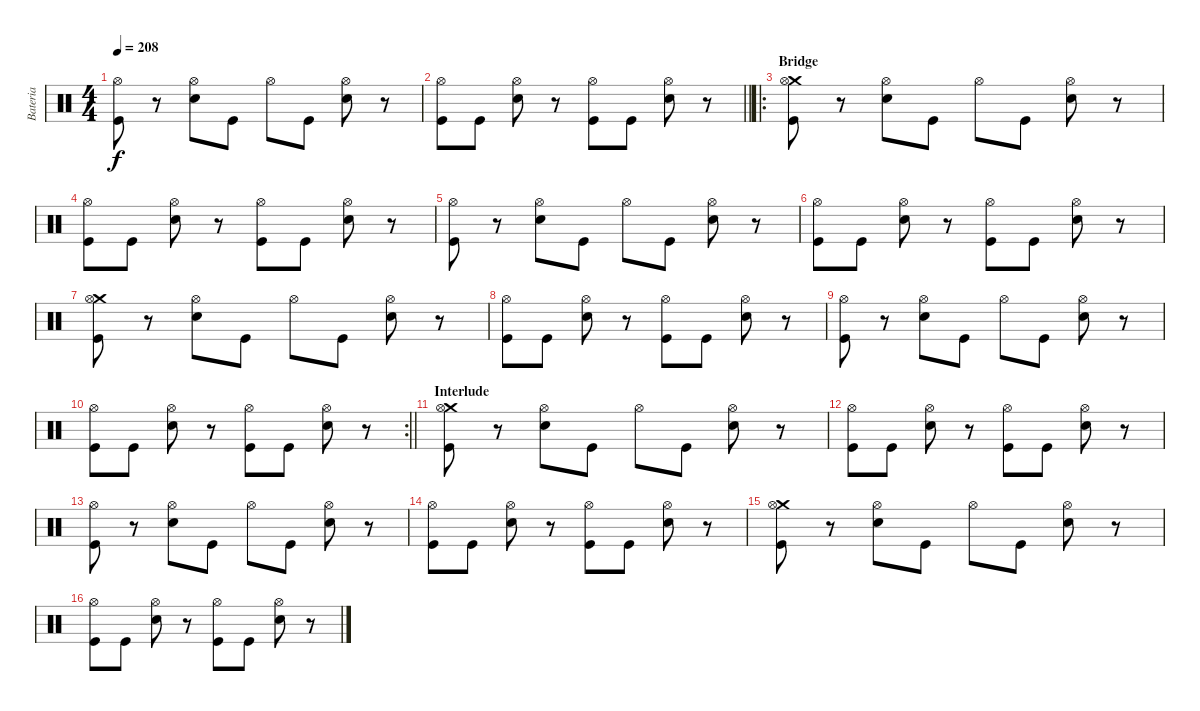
\track ("Bateria" "Bateria") {instrument percussion}
\staff {score}
\articulation defaults
\ts (4 4)
\tempo 208
\clef neutral
\ks c
("Hi-Hat (open)" "Kick (hit)").8{dy f} r.8 ("Hi-Hat (open)" "Electric Snare (hit)").8 "Kick (hit)".8 "Hi-Hat (open)".8 "Kick (hit)".8 ("Hi-Hat (open)" "Electric Snare (hit)").8 r.8 |
\barLineRight lightlight
("Hi-Hat (open)" "Kick (hit)").8 "Kick (hit)".8 ("Hi-Hat (open)" "Electric Snare (hit)").8 r.8 ("Hi-Hat (open)" "Kick (hit)").8 "Kick (hit)".8 ("Hi-Hat (open)" "Electric Snare (hit)").8 r.8 |
\ro
\section ("" "Bridge")
("Crash medium (hit)" "Hi-Hat (open)" "Kick (hit)").8 r.8 ("Hi-Hat (open)" "Electric Snare (hit)").8 "Kick (hit)".8 "Hi-Hat (open)".8 "Kick (hit)".8 ("Hi-Hat (open)" "Electric Snare (hit)").8 r.8 |
("Hi-Hat (open)" "Kick (hit)").8 "Kick (hit)".8 ("Hi-Hat (open)" "Electric Snare (hit)").8 r.8 ("Hi-Hat (open)" "Kick (hit)").8 "Kick (hit)".8 ("Hi-Hat (open)" "Electric Snare (hit)").8 r.8 |
("Hi-Hat (open)" "Kick (hit)").8 r.8 ("Hi-Hat (open)" "Electric Snare (hit)").8 "Kick (hit)".8 "Hi-Hat (open)".8 "Kick (hit)".8 ("Hi-Hat (open)" "Electric Snare (hit)").8 r.8 |
("Hi-Hat (open)" "Kick (hit)").8 "Kick (hit)".8 ("Hi-Hat (open)" "Electric Snare (hit)").8 r.8 ("Hi-Hat (open)" "Kick (hit)").8 "Kick (hit)".8 ("Hi-Hat (open)" "Electric Snare (hit)").8 r.8 |
("Crash medium (hit)" "Hi-Hat (open)" "Kick (hit)").8 r.8 ("Hi-Hat (open)" "Electric Snare (hit)").8 "Kick (hit)".8 "Hi-Hat (open)".8 "Kick (hit)".8 ("Hi-Hat (open)" "Electric Snare (hit)").8 r.8 |
("Hi-Hat (open)" "Kick (hit)").8 "Kick (hit)".8 ("Hi-Hat (open)" "Electric Snare (hit)").8 r.8 ("Hi-Hat (open)" "Kick (hit)").8 "Kick (hit)".8 ("Hi-Hat (open)" "Electric Snare (hit)").8 r.8 |
("Hi-Hat (open)" "Kick (hit)").8 r.8 ("Hi-Hat (open)" "Electric Snare (hit)").8 "Kick (hit)".8 "Hi-Hat (open)".8 "Kick (hit)".8 ("Hi-Hat (open)" "Electric Snare (hit)").8 r.8 |
\rc 2
\barLineRight lightlight
("Hi-Hat (open)" "Kick (hit)").8 "Kick (hit)".8 ("Hi-Hat (open)" "Electric Snare (hit)").8 r.8 ("Hi-Hat (open)" "Kick (hit)").8 "Kick (hit)".8 ("Hi-Hat (open)" "Electric Snare (hit)").8 r.8 |
\section ("" "Interlude")
("Crash medium (hit)" "Hi-Hat (open)" "Kick (hit)").8 r.8 ("Hi-Hat (open)" "Electric Snare (hit)").8 "Kick (hit)".8 "Hi-Hat (open)".8 "Kick (hit)".8 ("Hi-Hat (open)" "Electric Snare (hit)").8 r.8 |
("Hi-Hat (open)" "Kick (hit)").8 "Kick (hit)".8 ("Hi-Hat (open)" "Electric Snare (hit)").8 r.8 ("Hi-Hat (open)" "Kick (hit)").8 "Kick (hit)".8 ("Hi-Hat (open)" "Electric Snare (hit)").8 r.8 |
("Hi-Hat (open)" "Kick (hit)").8 r.8 ("Hi-Hat (open)" "Electric Snare (hit)").8 "Kick (hit)".8 "Hi-Hat (open)".8 "Kick (hit)".8 ("Hi-Hat (open)" "Electric Snare (hit)").8 r.8 |
("Hi-Hat (open)" "Kick (hit)").8 "Kick (hit)".8 ("Hi-Hat (open)" "Electric Snare (hit)").8 r.8 ("Hi-Hat (open)" "Kick (hit)").8 "Kick (hit)".8 ("Hi-Hat (open)" "Electric Snare (hit)").8 r.8 |
("Crash medium (hit)" "Hi-Hat (open)" "Kick (hit)").8 r.8 ("Hi-Hat (open)" "Electric Snare (hit)").8 "Kick (hit)".8 "Hi-Hat (open)".8 "Kick (hit)".8 ("Hi-Hat (open)" "Electric Snare (hit)").8 r.8 |
("Hi-Hat (open)" "Kick (hit)").8 "Kick (hit)".8 ("Hi-Hat (open)" "Electric Snare (hit)").8 r.8 ("Hi-Hat (open)" "Kick (hit)").8 "Kick (hit)".8 ("Hi-Hat (open)" "Electric Snare (hit)").8 r.8
